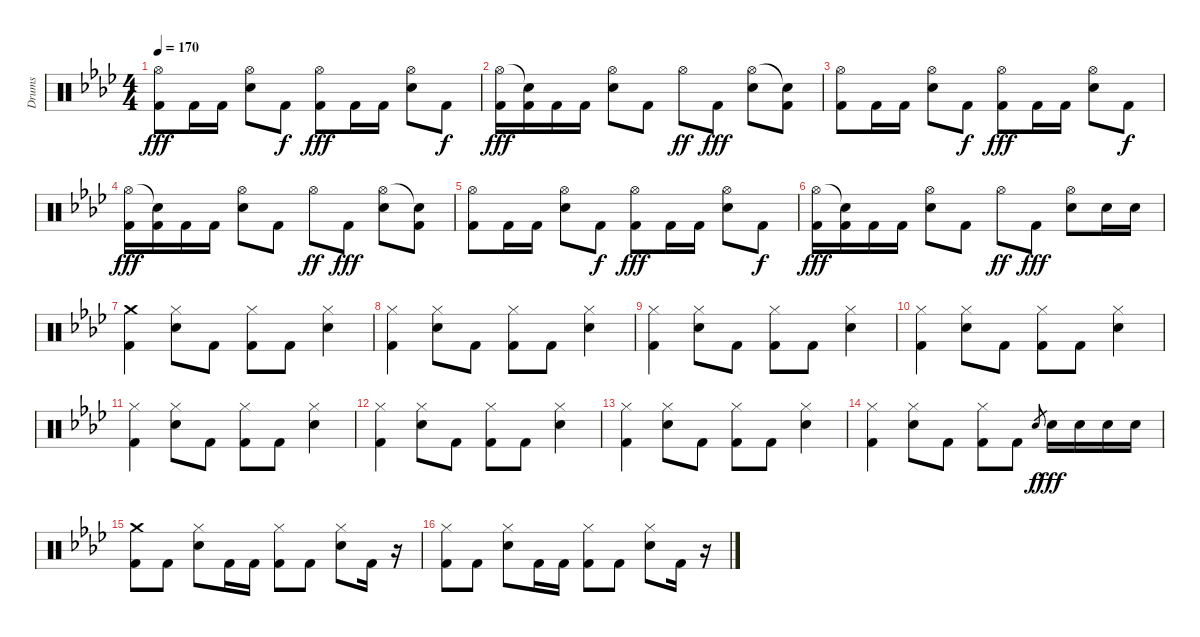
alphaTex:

\track ("Drums" "Drums") {instrument percussion}
\staff {score}
\articulation defaults
\ts (4 4)
\tempo 170
\clef neutral
\ks fminor
("Hi-Hat (open)" "Kick (hit) 2").8{dy fff} "Kick (hit) 2".16 "Kick (hit) 2".16 ("Hi-Hat (open)" "Snare (hit) 2").8 "Kick (hit) 2".8{dy f} ("Hi-Hat (open)" "Kick (hit) 2").8{dy fff} "Kick (hit) 2".16 "Kick (hit) 2".16 ("Hi-Hat (open)" "Snare (hit) 2").8 "Kick (hit) 2".8{dy f} |
("Hi-Hat (open)" "Kick (hit) 2").16{dy fff} ("Snare (hit)"{t} "Kick (hit) 2").16 "Kick (hit) 2".16 "Kick (hit) 2".16 ("Hi-Hat (open)" "Snare (hit) 2").8 "Kick (hit) 2".8 "Hi-Hat (open)".8{dy ff} "Kick (hit) 2".8{dy fff} ("Hi-Hat (open)" "Snare (hit) 2").8 ("Snare (hit)"{t} "Kick (hit) 2").8 |
("Hi-Hat (open)" "Kick (hit) 2").8 "Kick (hit) 2".16 "Kick (hit) 2".16 ("Hi-Hat (open)" "Snare (hit) 2").8 "Kick (hit) 2".8{dy f} ("Hi-Hat (open)" "Kick (hit) 2").8{dy fff} "Kick (hit) 2".16 "Kick (hit) 2".16 ("Hi-Hat (open)" "Snare (hit) 2").8 "Kick (hit) 2".8{dy f} |
("Hi-Hat (open)" "Kick (hit) 2").16{dy fff} ("Snare (hit)"{t} "Kick (hit) 2").16 "Kick (hit) 2".16 "Kick (hit) 2".16 ("Hi-Hat (open)" "Snare (hit) 2").8 "Kick (hit) 2".8 "Hi-Hat (open)".8{dy ff} "Kick (hit) 2".8{dy fff} ("Hi-Hat (open)" "Snare (hit) 2").8 ("Snare (hit)"{t} "Kick (hit) 2").8 |
("Hi-Hat (open)" "Kick (hit) 2").8 "Kick (hit) 2".16 "Kick (hit) 2".16 ("Hi-Hat (open)" "Snare (hit) 2").8 "Kick (hit) 2".8{dy f} ("Hi-Hat (open)" "Kick (hit) 2").8{dy fff} "Kick (hit) 2".16 "Kick (hit) 2".16 ("Hi-Hat (open)" "Snare (hit) 2").8 "Kick (hit) 2".8{dy f} |
("Hi-Hat (open)" "Kick (hit) 2").16{dy fff} ("Snare (hit)"{t} "Kick (hit) 2").16 "Kick (hit) 2".16 "Kick (hit) 2".16 ("Hi-Hat (open)" "Snare (hit) 2").8 "Kick (hit) 2".8 "Hi-Hat (open)".8{dy ff} "Kick (hit) 2".8{dy fff} ("Hi-Hat (open)" "Snare (hit) 2").8 "Snare (hit) 2".16 "Snare (hit) 2".16 |
("Crash medium (hit)" "Kick (hit) 2").4 ("Hi-Hat (closed)" "Snare (hit) 2").8 "Kick (hit) 2".8 ("Hi-Hat (closed)" "Kick (hit) 2").8 "Kick (hit) 2".8 ("Hi-Hat (closed)" "Snare (hit) 2").4 |
("Hi-Hat (closed)" "Kick (hit) 2").4 ("Hi-Hat (closed)" "Snare (hit) 2").8 "Kick (hit) 2".8 ("Hi-Hat (closed)" "Kick (hit) 2").8 "Kick (hit) 2".8 ("Hi-Hat (closed)" "Snare (hit) 2").4 |
("Hi-Hat (closed)" "Kick (hit) 2").4 ("Hi-Hat (closed)" "Snare (hit) 2").8 "Kick (hit) 2".8 ("Hi-Hat (closed)" "Kick (hit) 2").8 "Kick (hit) 2".8 ("Hi-Hat (closed)" "Snare (hit) 2").4 |
("Hi-Hat (closed)" "Kick (hit) 2").4 ("Hi-Hat (closed)" "Snare (hit) 2").8 "Kick (hit) 2".8 ("Hi-Hat (closed)" "Kick (hit) 2").8 "Kick (hit) 2".8 ("Hi-Hat (closed)" "Snare (hit) 2").4 |
("Hi-Hat (closed)" "Kick (hit) 2").4 ("Hi-Hat (closed)" "Snare (hit) 2").8 "Kick (hit) 2".8 ("Hi-Hat (closed)" "Kick (hit) 2").8 "Kick (hit) 2".8 ("Hi-Hat (closed)" "Snare (hit) 2").4 |
("Hi-Hat (closed)" "Kick (hit) 2").4 ("Hi-Hat (closed)" "Snare (hit) 2").8 "Kick (hit) 2".8 ("Hi-Hat (closed)" "Kick (hit) 2").8 "Kick (hit) 2".8 ("Hi-Hat (closed)" "Snare (hit) 2").4 |
("Hi-Hat (closed)" "Kick (hit) 2").4 ("Hi-Hat (closed)" "Snare (hit) 2").8 "Kick (hit) 2".8 ("Hi-Hat (closed)" "Kick (hit) 2").8 "Kick (hit) 2".8 ("Hi-Hat (closed)" "Snare (hit) 2").4 |
("Hi-Hat (closed)" "Kick (hit) 2").4 ("Hi-Hat (closed)" "Snare (hit) 2").8 "Kick (hit) 2".8 ("Hi-Hat (closed)" "Kick (hit) 2").8 "Kick (hit) 2".8 "Snare (hit) 2".8{gr dy f} "Snare (hit) 2".16{dy fff} "Snare (hit) 2".16 "Snare (hit) 2".16 "Snare (hit) 2".16 |
("Crash medium (hit)" "Kick (hit) 2").8 "Kick (hit) 2".8 ("Hi-Hat (closed)" "Snare (hit) 2").8 "Kick (hit) 2".16 "Kick (hit) 2".16 ("Hi-Hat (closed)" "Kick (hit) 2").8 "Kick (hit) 2".8 ("Hi-Hat (closed)" "Snare (hit) 2").8 "Kick (hit) 2".16 r.16 |
("Hi-Hat (closed)" "Kick (hit) 2").8 "Kick (hit) 2".8 ("Hi-Hat (closed)" "Snare (hit) 2").8 "Kick (hit) 2".16 "Kick (hit) 2".16 ("Hi-Hat (closed)" "Kick (hit) 2").8 "Kick (hit) 2".8 ("Hi-Hat (closed)" "Snare (hit) 2").8 "Kick (hit) 2".16 r.16
